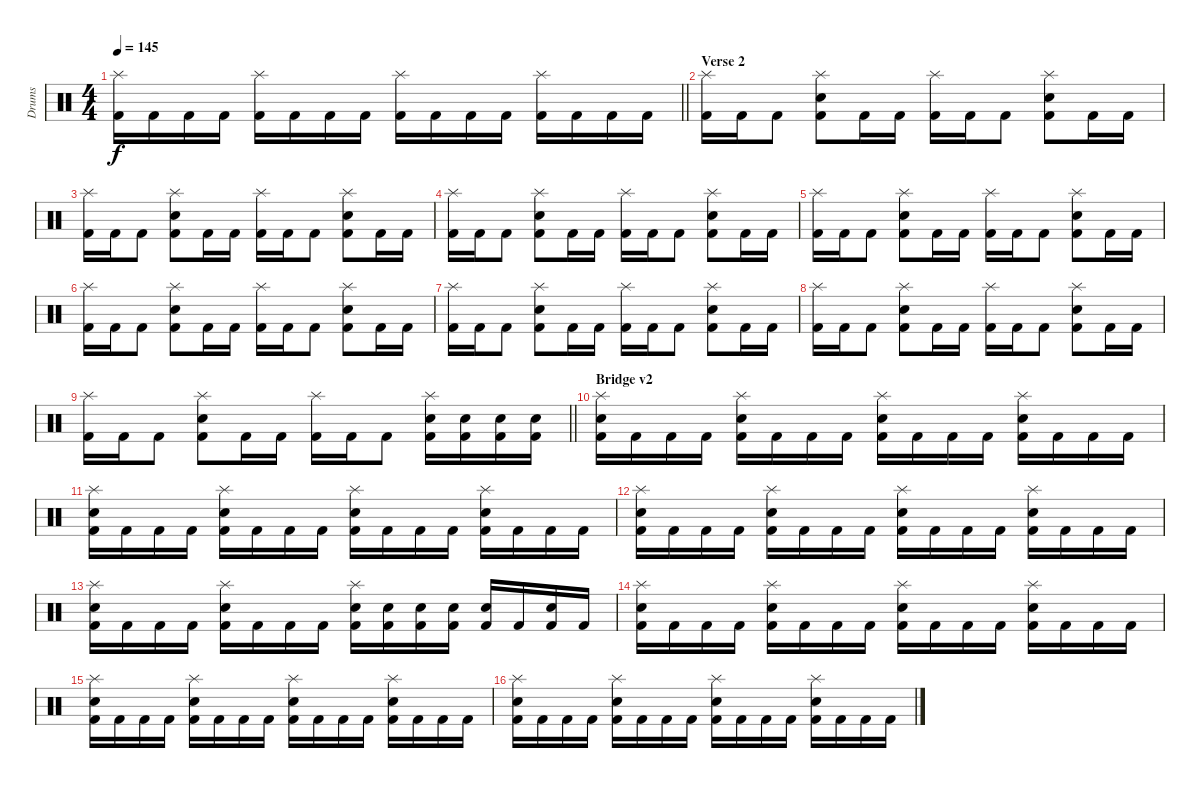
\track ("Drums" "Drums") {instrument percussion}
\staff {score}
\articulation defaults
\ts (4 4)
\tempo 145
\clef neutral
\barLineRight lightlight
\ks c
("Splash (hit)" "Kick (hit) 2").16{dy f} "Kick (hit) 2".16 "Kick (hit) 2".16 "Kick (hit) 2".16 ("Splash (hit)" "Kick (hit) 2").16 "Kick (hit) 2".16 "Kick (hit) 2".16 "Kick (hit) 2".16 ("Splash (hit)" "Kick (hit) 2").16 "Kick (hit) 2".16 "Kick (hit) 2".16 "Kick (hit) 2".16 ("Splash (hit)" "Kick (hit) 2").16 "Kick (hit) 2".16 "Kick (hit) 2".16 "Kick (hit) 2".16 |
\section ("" "Verse 2")
("Splash (hit)" "Kick (hit) 2").16 "Kick (hit) 2".16 "Kick (hit) 2".8 ("Splash (hit)" "Electric Snare (hit)" "Kick (hit) 2").8 "Kick (hit) 2".16 "Kick (hit) 2".16 ("Splash (hit)" "Kick (hit) 2").16 "Kick (hit) 2".16 "Kick (hit) 2".8 ("Splash (hit)" "Electric Snare (hit)" "Kick (hit) 2").8 "Kick (hit) 2".16 "Kick (hit) 2".16 |
("Splash (hit)" "Kick (hit) 2").16 "Kick (hit) 2".16 "Kick (hit) 2".8 ("Splash (hit)" "Electric Snare (hit)" "Kick (hit) 2").8 "Kick (hit) 2".16 "Kick (hit) 2".16 ("Splash (hit)" "Kick (hit) 2").16 "Kick (hit) 2".16 "Kick (hit) 2".8 ("Splash (hit)" "Electric Snare (hit)" "Kick (hit) 2").8 "Kick (hit) 2".16 "Kick (hit) 2".16 |
("Splash (hit)" "Kick (hit) 2").16 "Kick (hit) 2".16 "Kick (hit) 2".8 ("Splash (hit)" "Electric Snare (hit)" "Kick (hit) 2").8 "Kick (hit) 2".16 "Kick (hit) 2".16 ("Splash (hit)" "Kick (hit) 2").16 "Kick (hit) 2".16 "Kick (hit) 2".8 ("Splash (hit)" "Electric Snare (hit)" "Kick (hit) 2").8 "Kick (hit) 2".16 "Kick (hit) 2".16 |
("Splash (hit)" "Kick (hit) 2").16 "Kick (hit) 2".16 "Kick (hit) 2".8 ("Splash (hit)" "Electric Snare (hit)" "Kick (hit) 2").8 "Kick (hit) 2".16 "Kick (hit) 2".16 ("Splash (hit)" "Kick (hit) 2").16 "Kick (hit) 2".16 "Kick (hit) 2".8 ("Splash (hit)" "Electric Snare (hit)" "Kick (hit) 2").8 "Kick (hit) 2".16 "Kick (hit) 2".16 |
("Splash (hit)" "Kick (hit) 2").16 "Kick (hit) 2".16 "Kick (hit) 2".8 ("Splash (hit)" "Electric Snare (hit)" "Kick (hit) 2").8 "Kick (hit) 2".16 "Kick (hit) 2".16 ("Splash (hit)" "Kick (hit) 2").16 "Kick (hit) 2".16 "Kick (hit) 2".8 ("Splash (hit)" "Electric Snare (hit)" "Kick (hit) 2").8 "Kick (hit) 2".16 "Kick (hit) 2".16 |
("Splash (hit)" "Kick (hit) 2").16 "Kick (hit) 2".16 "Kick (hit) 2".8 ("Splash (hit)" "Electric Snare (hit)" "Kick (hit) 2").8 "Kick (hit) 2".16 "Kick (hit) 2".16 ("Splash (hit)" "Kick (hit) 2").16 "Kick (hit) 2".16 "Kick (hit) 2".8 ("Splash (hit)" "Electric Snare (hit)" "Kick (hit) 2").8 "Kick (hit) 2".16 "Kick (hit) 2".16 |
("Splash (hit)" "Kick (hit) 2").16 "Kick (hit) 2".16 "Kick (hit) 2".8 ("Splash (hit)" "Electric Snare (hit)" "Kick (hit) 2").8 "Kick (hit) 2".16 "Kick (hit) 2".16 ("Splash (hit)" "Kick (hit) 2").16 "Kick (hit) 2".16 "Kick (hit) 2".8 ("Splash (hit)" "Electric Snare (hit)" "Kick (hit) 2").8 "Kick (hit) 2".16 "Kick (hit) 2".16 |
\barLineRight lightlight
("Splash (hit)" "Kick (hit) 2").16 "Kick (hit) 2".16 "Kick (hit) 2".8 ("Splash (hit)" "Electric Snare (hit)" "Kick (hit) 2").8 "Kick (hit) 2".16 "Kick (hit) 2".16 ("Splash (hit)" "Kick (hit) 2").16 "Kick (hit) 2".16 "Kick (hit) 2".8 ("Splash (hit)" "Electric Snare (hit)" "Kick (hit) 2").16 ("Electric Snare (hit)" "Kick (hit) 2").16 ("Electric Snare (hit)" "Kick (hit) 2").16 ("Electric Snare (hit)" "Kick (hit) 2").16 |
\section ("" "Bridge v2")
("Splash (hit)" "Electric Snare (hit)" "Kick (hit) 2").16 "Kick (hit) 2".16 "Kick (hit) 2".16 "Kick (hit) 2".16 ("Splash (hit)" "Electric Snare (hit)" "Kick (hit) 2").16 "Kick (hit) 2".16 "Kick (hit) 2".16 "Kick (hit) 2".16 ("Splash (hit)" "Electric Snare (hit)" "Kick (hit) 2").16 "Kick (hit) 2".16 "Kick (hit) 2".16 "Kick (hit) 2".16 ("Splash (hit)" "Electric Snare (hit)" "Kick (hit) 2").16 "Kick (hit) 2".16 "Kick (hit) 2".16 "Kick (hit) 2".16 |
("Splash (hit)" "Electric Snare (hit)" "Kick (hit) 2").16 "Kick (hit) 2".16 "Kick (hit) 2".16 "Kick (hit) 2".16 ("Splash (hit)" "Electric Snare (hit)" "Kick (hit) 2").16 "Kick (hit) 2".16 "Kick (hit) 2".16 "Kick (hit) 2".16 ("Splash (hit)" "Electric Snare (hit)" "Kick (hit) 2").16 "Kick (hit) 2".16 "Kick (hit) 2".16 "Kick (hit) 2".16 ("Splash (hit)" "Electric Snare (hit)" "Kick (hit) 2").16 "Kick (hit) 2".16 "Kick (hit) 2".16 "Kick (hit) 2".16 |
("Splash (hit)" "Electric Snare (hit)" "Kick (hit) 2").16 "Kick (hit) 2".16 "Kick (hit) 2".16 "Kick (hit) 2".16 ("Splash (hit)" "Electric Snare (hit)" "Kick (hit) 2").16 "Kick (hit) 2".16 "Kick (hit) 2".16 "Kick (hit) 2".16 ("Splash (hit)" "Electric Snare (hit)" "Kick (hit) 2").16 "Kick (hit) 2".16 "Kick (hit) 2".16 "Kick (hit) 2".16 ("Splash (hit)" "Electric Snare (hit)" "Kick (hit) 2").16 "Kick (hit) 2".16 "Kick (hit) 2".16 "Kick (hit) 2".16 |
("Splash (hit)" "Electric Snare (hit)" "Kick (hit) 2").16 "Kick (hit) 2".16 "Kick (hit) 2".16 "Kick (hit) 2".16 ("Splash (hit)" "Electric Snare (hit)" "Kick (hit) 2").16 "Kick (hit) 2".16 "Kick (hit) 2".16 "Kick (hit) 2".16 ("Splash (hit)" "Electric Snare (hit)" "Kick (hit) 2").16 ("Electric Snare (hit)" "Kick (hit) 2").16 ("Electric Snare (hit)" "Kick (hit) 2").16 ("Electric Snare (hit)" "Kick (hit) 2").16 ("Electric Snare (hit)" "Kick (hit) 2").16 "Kick (hit) 2".16 ("Electric Snare (hit)" "Kick (hit) 2").16 "Kick (hit) 2".16 |
("Splash (hit)" "Electric Snare (hit)" "Kick (hit) 2").16 "Kick (hit) 2".16 "Kick (hit) 2".16 "Kick (hit) 2".16 ("Splash (hit)" "Electric Snare (hit)" "Kick (hit) 2").16 "Kick (hit) 2".16 "Kick (hit) 2".16 "Kick (hit) 2".16 ("Splash (hit)" "Electric Snare (hit)" "Kick (hit) 2").16 "Kick (hit) 2".16 "Kick (hit) 2".16 "Kick (hit) 2".16 ("Splash (hit)" "Electric Snare (hit)" "Kick (hit) 2").16 "Kick (hit) 2".16 "Kick (hit) 2".16 "Kick (hit) 2".16 |
("Splash (hit)" "Electric Snare (hit)" "Kick (hit) 2").16 "Kick (hit) 2".16 "Kick (hit) 2".16 "Kick (hit) 2".16 ("Splash (hit)" "Electric Snare (hit)" "Kick (hit) 2").16 "Kick (hit) 2".16 "Kick (hit) 2".16 "Kick (hit) 2".16 ("Splash (hit)" "Electric Snare (hit)" "Kick (hit) 2").16 "Kick (hit) 2".16 "Kick (hit) 2".16 "Kick (hit) 2".16 ("Splash (hit)" "Electric Snare (hit)" "Kick (hit) 2").16 "Kick (hit) 2".16 "Kick (hit) 2".16 "Kick (hit) 2".16 |
("Splash (hit)" "Electric Snare (hit)" "Kick (hit) 2").16 "Kick (hit) 2".16 "Kick (hit) 2".16 "Kick (hit) 2".16 ("Splash (hit)" "Electric Snare (hit)" "Kick (hit) 2").16 "Kick (hit) 2".16 "Kick (hit) 2".16 "Kick (hit) 2".16 ("Splash (hit)" "Electric Snare (hit)" "Kick (hit) 2").16 "Kick (hit) 2".16 "Kick (hit) 2".16 "Kick (hit) 2".16 ("Splash (hit)" "Electric Snare (hit)" "Kick (hit) 2").16 "Kick (hit) 2".16 "Kick (hit) 2".16 "Kick (hit) 2".16
